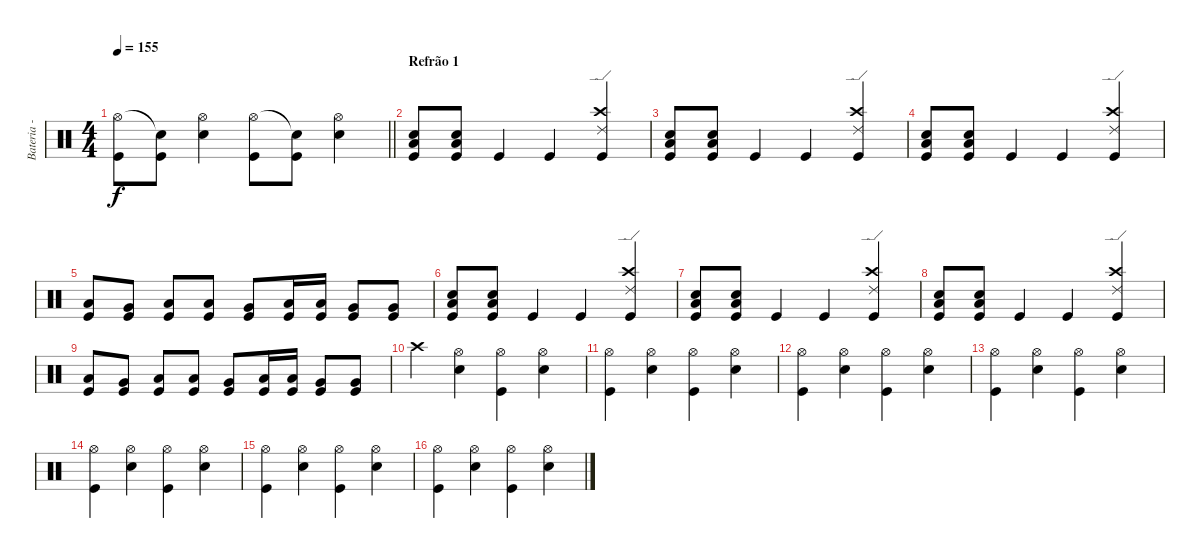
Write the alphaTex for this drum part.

\track ("Bateria - Craig Nunumacher" "Bateria - ") {instrument percussion}
\staff {score}
\articulation defaults
\ts (4 4)
\tempo 155
\clef neutral
\barLineRight lightlight
\ks c
("Hi-Hat (open)" "Kick (hit)").8{dy f} ("Snare (hit)"{t} "Kick (hit)").8 ("Hi-Hat (open)" "Electric Snare (hit)").4 ("Hi-Hat (open)" "Kick (hit)").8 ("Snare (hit)"{t} "Kick (hit)").8 ("Hi-Hat (open)" "Electric Snare (hit)").4 |
\section ("" "Refrão 1")
("Electric Snare (hit)" "Low Floor Tom (hit)" "Kick (hit)").8 ("Electric Snare (hit)" "Low Floor Tom (hit)" "Kick (hit)").8 "Kick (hit)".4 "Kick (hit)".4 ("Crash high (hit)" "Ride (edge) 2" "Kick (hit)").4 |
("Electric Snare (hit)" "Low Floor Tom (hit)" "Kick (hit)").8 ("Electric Snare (hit)" "Low Floor Tom (hit)" "Kick (hit)").8 "Kick (hit)".4 "Kick (hit)".4 ("Crash high (hit)" "Ride (edge) 2" "Kick (hit)").4 |
("Electric Snare (hit)" "Low Floor Tom (hit)" "Kick (hit)").8 ("Electric Snare (hit)" "Low Floor Tom (hit)" "Kick (hit)").8 "Kick (hit)".4 "Kick (hit)".4 ("Crash high (hit)" "Ride (edge) 2" "Kick (hit)").4 |
("Low Tom (hit)" "Kick (hit)").8 ("Very Low Tom (hit)" "Kick (hit)").8 ("Low Floor Tom (hit)" "Kick (hit)").8 ("Low Tom (hit)" "Kick (hit)").8 ("Very Low Tom (hit)" "Kick (hit)").8 ("Low Floor Tom (hit)" "Kick (hit)").16 ("Low Floor Tom (hit)" "Kick (hit)").16 ("Very Low Tom (hit)" "Kick (hit)").8 ("Very Low Tom (hit)" "Kick (hit)").8 |
("Electric Snare (hit)" "Low Floor Tom (hit)" "Kick (hit)").8 ("Electric Snare (hit)" "Low Floor Tom (hit)" "Kick (hit)").8 "Kick (hit)".4 "Kick (hit)".4 ("Crash high (hit)" "Ride (edge) 2" "Kick (hit)").4 |
("Electric Snare (hit)" "Low Floor Tom (hit)" "Kick (hit)").8 ("Electric Snare (hit)" "Low Floor Tom (hit)" "Kick (hit)").8 "Kick (hit)".4 "Kick (hit)".4 ("Crash high (hit)" "Ride (edge) 2" "Kick (hit)").4 |
("Electric Snare (hit)" "Low Floor Tom (hit)" "Kick (hit)").8 ("Electric Snare (hit)" "Low Floor Tom (hit)" "Kick (hit)").8 "Kick (hit)".4 "Kick (hit)".4 ("Crash high (hit)" "Ride (edge) 2" "Kick (hit)").4 |
("Low Tom (hit)" "Kick (hit)").8 ("Very Low Tom (hit)" "Kick (hit)").8 ("Low Floor Tom (hit)" "Kick (hit)").8 ("Low Tom (hit)" "Kick (hit)").8 ("Very Low Tom (hit)" "Kick (hit)").8 ("Low Floor Tom (hit)" "Kick (hit)").16 ("Low Floor Tom (hit)" "Kick (hit)").16 ("Very Low Tom (hit)" "Kick (hit)").8 ("Very Low Tom (hit)" "Kick (hit)").8 |
"Crash high (hit)".4 ("Hi-Hat (open)" "Electric Snare (hit)").4 ("Hi-Hat (open)" "Kick (hit)").4 ("Hi-Hat (open)" "Electric Snare (hit)").4 |
("Hi-Hat (open)" "Kick (hit)").4 ("Hi-Hat (open)" "Electric Snare (hit)").4 ("Hi-Hat (open)" "Kick (hit)").4 ("Hi-Hat (open)" "Electric Snare (hit)").4 |
("Hi-Hat (open)" "Kick (hit)").4 ("Hi-Hat (open)" "Electric Snare (hit)").4 ("Hi-Hat (open)" "Kick (hit)").4 ("Hi-Hat (open)" "Electric Snare (hit)").4 |
("Hi-Hat (open)" "Kick (hit)").4 ("Hi-Hat (open)" "Electric Snare (hit)").4 ("Hi-Hat (open)" "Kick (hit)").4 ("Hi-Hat (open)" "Electric Snare (hit)").4 |
("Hi-Hat (open)" "Kick (hit)").4 ("Hi-Hat (open)" "Electric Snare (hit)").4 ("Hi-Hat (open)" "Kick (hit)").4 ("Hi-Hat (open)" "Electric Snare (hit)").4 |
("Hi-Hat (open)" "Kick (hit)").4 ("Hi-Hat (open)" "Electric Snare (hit)").4 ("Hi-Hat (open)" "Kick (hit)").4 ("Hi-Hat (open)" "Electric Snare (hit)").4 |
("Hi-Hat (open)" "Kick (hit)").4 ("Hi-Hat (open)" "Electric Snare (hit)").4 ("Hi-Hat (open)" "Kick (hit)").4 ("Hi-Hat (open)" "Electric Snare (hit)").4
